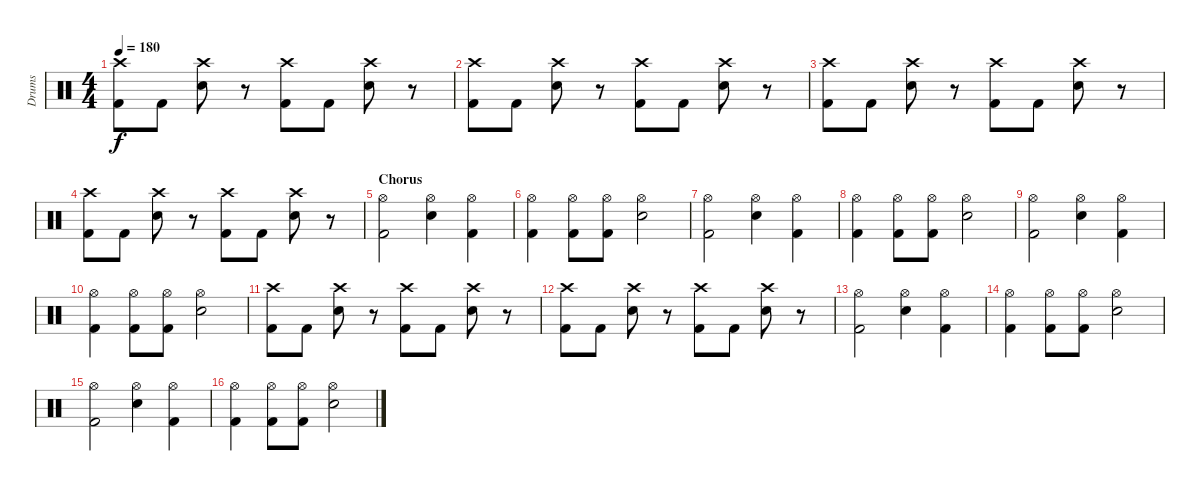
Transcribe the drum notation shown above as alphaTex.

\track ("Drums" "Drums") {instrument percussion}
\staff {score}
\articulation defaults
\ts (4 4)
\tempo 180
\clef neutral
\ks c
("Crash high (hit)" "Kick (hit) 2").8{dy f} "Kick (hit) 2".8 ("Crash high (hit)" "Snare (hit) 2").8 r.8 ("Crash high (hit)" "Kick (hit) 2").8 "Kick (hit) 2".8 ("Crash high (hit)" "Snare (hit) 2").8 r.8 |
("Crash high (hit)" "Kick (hit) 2").8 "Kick (hit) 2".8 ("Crash high (hit)" "Snare (hit) 2").8 r.8 ("Crash high (hit)" "Kick (hit) 2").8 "Kick (hit) 2".8 ("Crash high (hit)" "Snare (hit) 2").8 r.8 |
("Crash high (hit)" "Kick (hit) 2").8 "Kick (hit) 2".8 ("Crash high (hit)" "Snare (hit) 2").8 r.8 ("Crash high (hit)" "Kick (hit) 2").8 "Kick (hit) 2".8 ("Crash high (hit)" "Snare (hit) 2").8 r.8 |
("Crash high (hit)" "Kick (hit) 2").8 "Kick (hit) 2".8 ("Crash high (hit)" "Snare (hit) 2").8 r.8 ("Crash high (hit)" "Kick (hit) 2").8 "Kick (hit) 2".8 ("Crash high (hit)" "Snare (hit) 2").8 r.8 |
\section ("" "Chorus")
("Hi-Hat (open)" "Kick (hit) 2").2 ("Hi-Hat (open)" "Snare (hit) 2").4 ("Hi-Hat (open)" "Kick (hit) 2").4 |
("Hi-Hat (open)" "Kick (hit) 2").4 ("Hi-Hat (open)" "Kick (hit) 2").8 ("Hi-Hat (open)" "Kick (hit) 2").8 ("Hi-Hat (open)" "Snare (hit) 2").2 |
("Hi-Hat (open)" "Kick (hit) 2").2 ("Hi-Hat (open)" "Snare (hit) 2").4 ("Hi-Hat (open)" "Kick (hit) 2").4 |
("Hi-Hat (open)" "Kick (hit) 2").4 ("Hi-Hat (open)" "Kick (hit) 2").8 ("Hi-Hat (open)" "Kick (hit) 2").8 ("Hi-Hat (open)" "Snare (hit) 2").2 |
("Hi-Hat (open)" "Kick (hit) 2").2 ("Hi-Hat (open)" "Snare (hit) 2").4 ("Hi-Hat (open)" "Kick (hit) 2").4 |
("Hi-Hat (open)" "Kick (hit) 2").4 ("Hi-Hat (open)" "Kick (hit) 2").8 ("Hi-Hat (open)" "Kick (hit) 2").8 ("Hi-Hat (open)" "Snare (hit) 2").2 |
("Crash high (hit)" "Kick (hit) 2").8 "Kick (hit) 2".8 ("Crash high (hit)" "Snare (hit) 2").8 r.8 ("Crash high (hit)" "Kick (hit) 2").8 "Kick (hit) 2".8 ("Crash high (hit)" "Snare (hit) 2").8 r.8 |
("Crash high (hit)" "Kick (hit) 2").8 "Kick (hit) 2".8 ("Crash high (hit)" "Snare (hit) 2").8 r.8 ("Crash high (hit)" "Kick (hit) 2").8 "Kick (hit) 2".8 ("Crash high (hit)" "Snare (hit) 2").8 r.8 |
("Hi-Hat (open)" "Kick (hit) 2").2 ("Hi-Hat (open)" "Snare (hit) 2").4 ("Hi-Hat (open)" "Kick (hit) 2").4 |
("Hi-Hat (open)" "Kick (hit) 2").4 ("Hi-Hat (open)" "Kick (hit) 2").8 ("Hi-Hat (open)" "Kick (hit) 2").8 ("Hi-Hat (open)" "Snare (hit) 2").2 |
("Hi-Hat (open)" "Kick (hit) 2").2 ("Hi-Hat (open)" "Snare (hit) 2").4 ("Hi-Hat (open)" "Kick (hit) 2").4 |
("Hi-Hat (open)" "Kick (hit) 2").4 ("Hi-Hat (open)" "Kick (hit) 2").8 ("Hi-Hat (open)" "Kick (hit) 2").8 ("Hi-Hat (open)" "Snare (hit) 2").2
